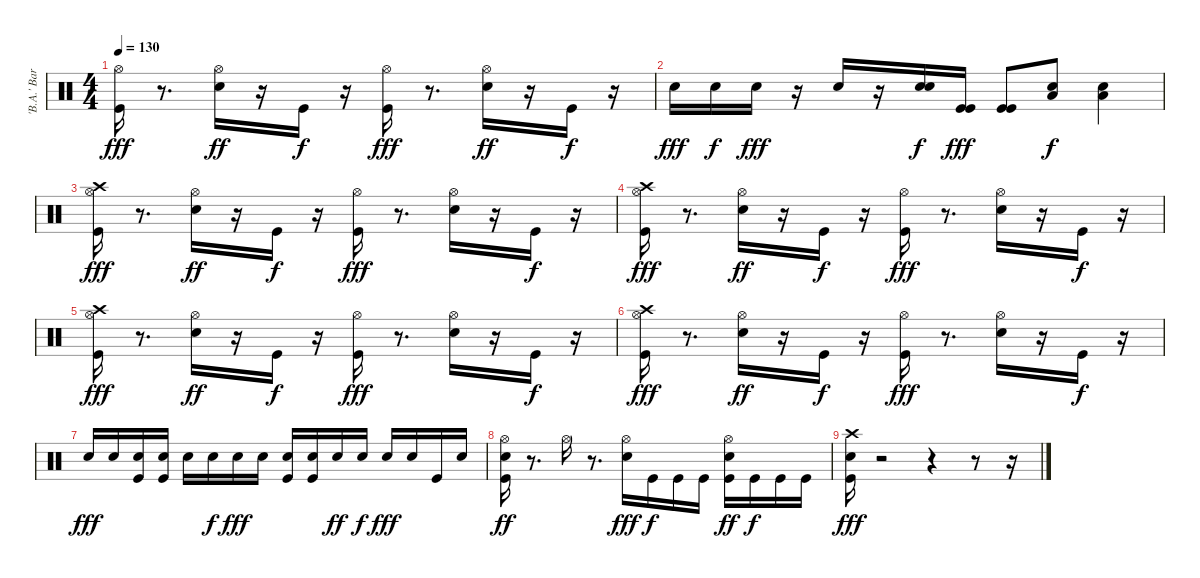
\track ("'B.A.' Baracus" "'B.A.' Bar") {instrument percussion}
\staff {score}
\articulation defaults
\ts (4 4)
\tempo 130
\clef neutral
\ks c
("Hi-Hat (open)" "Kick (hit)").16{dy fff} r.8{d} ("Hi-Hat (open)" "Snare (hit) 2").16{dy ff} r.16 "Kick (hit)".16{dy f} r.16 ("Hi-Hat (open)" "Kick (hit)").16{dy fff} r.8{d} ("Hi-Hat (open)" "Snare (hit) 2").16{dy ff} r.16 "Kick (hit)".16{dy f} r.16 |
"Snare (hit) 2".16{dy fff} "Snare (hit) 2".16{dy f} "Snare (hit) 2".16{dy fff} r.16 "Snare (hit) 2".16 r.16 ("Snare (hit) 2" "Snare (hit) 2").16{dy f} ("Kick (hit)" "Kick (hit)").16{dy fff} ("Kick (hit)" "Kick (hit)").8 ("Low Floor Tom (hit)" "Snare (hit) 2").8{dy f} ("Low Floor Tom (hit)" "Snare (hit) 2").4 |
("Hi-Hat (open)" "Crash high (hit)" "Kick (hit)").16{dy fff} r.8{d} ("Hi-Hat (open)" "Snare (hit) 2").16{dy ff} r.16 "Kick (hit)".16{dy f} r.16 ("Hi-Hat (open)" "Kick (hit)").16{dy fff} r.8{d} ("Hi-Hat (open)" "Snare (hit) 2").16 r.16 "Kick (hit)".16{dy f} r.16 |
("Hi-Hat (open)" "Crash high (hit)" "Kick (hit)").16{dy fff} r.8{d} ("Hi-Hat (open)" "Snare (hit) 2").16{dy ff} r.16 "Kick (hit)".16{dy f} r.16 ("Hi-Hat (open)" "Kick (hit)").16{dy fff} r.8{d} ("Hi-Hat (open)" "Snare (hit) 2").16 r.16 "Kick (hit)".16{dy f} r.16 |
("Hi-Hat (open)" "Crash high (hit)" "Kick (hit)").16{dy fff} r.8{d} ("Hi-Hat (open)" "Snare (hit) 2").16{dy ff} r.16 "Kick (hit)".16{dy f} r.16 ("Hi-Hat (open)" "Kick (hit)").16{dy fff} r.8{d} ("Hi-Hat (open)" "Snare (hit) 2").16 r.16 "Kick (hit)".16{dy f} r.16 |
("Hi-Hat (open)" "Crash high (hit)" "Kick (hit)").16{dy fff} r.8{d} ("Hi-Hat (open)" "Snare (hit) 2").16{dy ff} r.16 "Kick (hit)".16{dy f} r.16 ("Hi-Hat (open)" "Kick (hit)").16{dy fff} r.8{d} ("Hi-Hat (open)" "Snare (hit) 2").16 r.16 "Kick (hit)".16{dy f} r.16 |
"Snare (hit) 2".16{dy fff} "Snare (hit) 2".16 ("Snare (hit) 2" "Kick (hit)").16 ("Snare (hit) 2" "Kick (hit)").16 "Snare (hit) 2".16 "Snare (hit) 2".16{dy f} "Snare (hit) 2".16{dy fff} "Snare (hit) 2".16 ("Snare (hit) 2" "Kick (hit)").16 ("Snare (hit) 2" "Kick (hit)").16 "Snare (hit) 2".16{dy ff} "Snare (hit) 2".16{dy f} "Snare (hit) 2".16{dy fff} "Snare (hit) 2".16 "Kick (hit)".16 "Snare (hit) 2".16 |
("Hi-Hat (open)" "Snare (hit) 2" "Kick (hit)").16{dy ff} r.8{d} "Hi-Hat (open)".16 r.8{d} ("Hi-Hat (open)" "Snare (hit) 2").16{dy fff} "Kick (hit)".16{dy f} "Kick (hit)".16 "Kick (hit)".16 ("Hi-Hat (open)" "Snare (hit) 2" "Kick (hit)").16{dy ff} "Kick (hit)".16{dy f} "Kick (hit)".16 "Kick (hit)".16 |
("Crash high (hit)" "Snare (hit) 2" "Kick (hit)").16{dy fff} r.2 r.4 r.8 r.16
